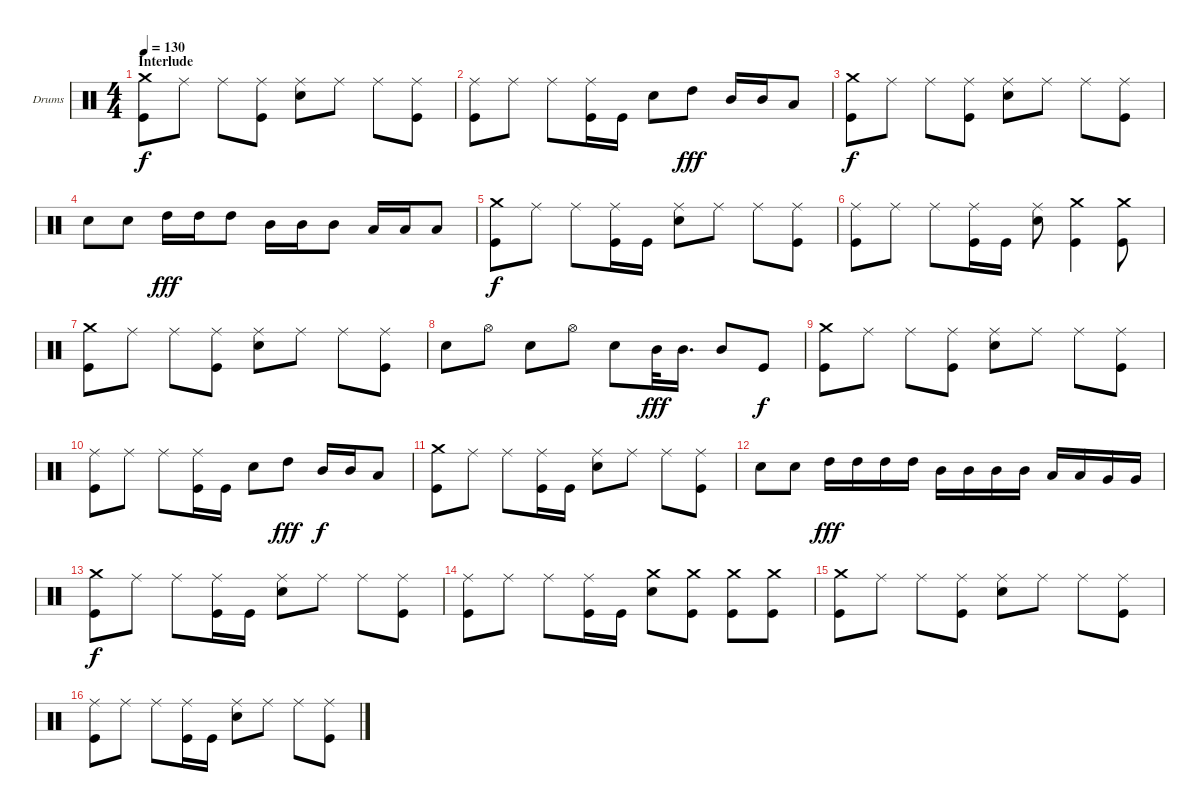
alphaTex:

\bracketExtendMode groupsimilarinstruments
\firstSystemTrackNameOrientation horizontal
\otherSystemsTrackNameOrientation horizontal
\track ("Drums" "Drums") {instrument percussion}
\staff {score}
\articulation defaults
\ts (4 4)
\section ("" "Interlude")
\tempo 130
\clef neutral
\ks c
("Crash medium (hit)" "Kick (hit)").8{dy f} "Ride (middle)".8 "Ride (middle)".8 ("Ride (middle)" "Kick (hit)").8 ("Ride (middle)" "Snare (hit) 2").8 "Ride (middle)".8 "Ride (middle)".8 ("Ride (middle)" "Kick (hit)").8 |
("Ride (middle)" "Kick (hit)").8 "Ride (middle)".8 "Ride (middle)".8 ("Ride (middle)" "Kick (hit)").16 "Kick (hit)".16 "Snare (hit) 2".8 "High Tom (hit)".8{dy fff} "Mid Tom (hit)".16 "Mid Tom (hit)".16 "Low Tom (hit)".8 |
("Crash medium (hit)" "Kick (hit)").8{dy f} "Ride (middle)".8 "Ride (middle)".8 ("Ride (middle)" "Kick (hit)").8 ("Ride (middle)" "Snare (hit) 2").8 "Ride (middle)".8 "Ride (middle)".8 ("Ride (middle)" "Kick (hit)").8 |
"Snare (hit) 2".8 "Snare (hit) 2".8 "High Tom (hit)".16{dy fff} "High Tom (hit)".16 "High Tom (hit)".8 "Mid Tom (hit)".16 "Mid Tom (hit)".16 "Mid Tom (hit)".8 "Low Tom (hit)".16 "Low Tom (hit)".16 "Low Tom (hit)".8 |
("Crash medium (hit)" "Kick (hit)").8{dy f} "Ride (middle)".8 "Ride (middle)".8 ("Ride (middle)" "Kick (hit)").16 "Kick (hit)".16 ("Ride (middle)" "Snare (hit) 2").8 "Ride (middle)".8 "Ride (middle)".8 ("Ride (middle)" "Kick (hit)").8 |
("Ride (middle)" "Kick (hit)").8 "Ride (middle)".8 "Ride (middle)".8 ("Ride (middle)" "Kick (hit)").16 "Kick (hit)".16 ("Snare (hit) 2" "Ride (middle)").8 ("Crash medium (hit)" "Kick (hit)").4 ("Crash medium (hit)" "Kick (hit)").8 |
("Crash medium (hit)" "Kick (hit)").8 "Ride (middle)".8 "Ride (middle)".8 ("Ride (middle)" "Kick (hit)").8 ("Ride (middle)" "Snare (hit) 2").8 "Ride (middle)".8 "Ride (middle)".8 ("Ride (middle)" "Kick (hit)").8 |
"Snare (hit) 2".8 "Hi-Hat (open)".8 "Snare (hit) 2".8 "Hi-Hat (open)".8 "Snare (hit) 2".8 "Mid Tom (hit)".32{dy fff} "Mid Tom (hit)".16{d} "Mid Tom (hit)".8 "Kick (hit)".8{dy f} |
("Crash medium (hit)" "Kick (hit)").8 "Ride (middle)".8 "Ride (middle)".8 ("Ride (middle)" "Kick (hit)").8 ("Ride (middle)" "Snare (hit) 2").8 "Ride (middle)".8 "Ride (middle)".8 ("Ride (middle)" "Kick (hit)").8 |
("Ride (middle)" "Kick (hit)").8 "Ride (middle)".8 "Ride (middle)".8 ("Ride (middle)" "Kick (hit)").16 "Kick (hit)".16 "Snare (hit) 2".8 "High Tom (hit)".8{dy fff} "Mid Tom (hit)".16{dy f} "Mid Tom (hit)".16 "Low Tom (hit)".8 |
("Crash medium (hit)" "Kick (hit)").8 "Ride (middle)".8 "Ride (middle)".8 ("Ride (middle)" "Kick (hit)").16 "Kick (hit)".16 ("Ride (middle)" "Snare (hit) 2").8 "Ride (middle)".8 "Ride (middle)".8 ("Ride (middle)" "Kick (hit)").8 |
"Snare (hit) 2".8 "Snare (hit) 2".8 "High Tom (hit)".16{dy fff} "High Tom (hit)".16 "High Tom (hit)".16 "High Tom (hit)".16 "Mid Tom (hit)".16 "Mid Tom (hit)".16 "Mid Tom (hit)".16 "Mid Tom (hit)".16 "Low Tom (hit)".16 "Low Tom (hit)".16 "Very Low Tom (hit)".16 "Very Low Tom (hit)".16 |
("Crash medium (hit)" "Kick (hit)").8{dy f} "Ride (middle)".8 "Ride (middle)".8 ("Ride (middle)" "Kick (hit)").16 "Kick (hit)".16 ("Ride (middle)" "Snare (hit) 2").8 "Ride (middle)".8 "Ride (middle)".8 ("Ride (middle)" "Kick (hit)").8 |
("Ride (middle)" "Kick (hit)").8 "Ride (middle)".8 "Ride (middle)".8 ("Ride (middle)" "Kick (hit)").16 "Kick (hit)".16 ("Crash medium (hit)" "Snare (hit) 2").8 ("Crash medium (hit)" "Kick (hit)").8 ("Crash medium (hit)" "Kick (hit)").8 ("Crash medium (hit)" "Kick (hit)").8 |
("Crash medium (hit)" "Kick (hit)").8 "Ride (middle)".8 "Ride (middle)".8 ("Ride (middle)" "Kick (hit)").8 ("Ride (middle)" "Snare (hit) 2").8 "Ride (middle)".8 "Ride (middle)".8 ("Ride (middle)" "Kick (hit)").8 |
("Ride (middle)" "Kick (hit)").8 "Ride (middle)".8 "Ride (middle)".8 ("Ride (middle)" "Kick (hit)").16 "Kick (hit)".16 ("Ride (middle)" "Snare (hit) 2").8 "Ride (middle)".8 "Ride (middle)".8 ("Kick (hit)" "Ride (middle)").8
